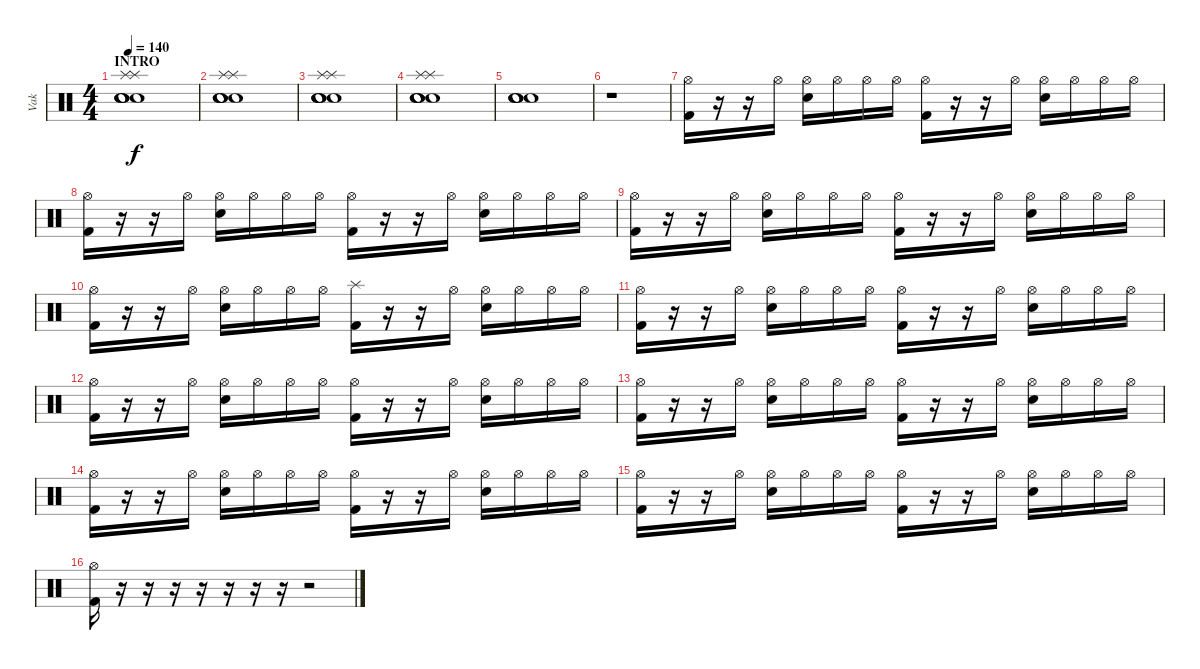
\track ("Vak" "Vak") {instrument percussion}
\staff {score}
\articulation defaults
\ts (4 4)
\section ("" "INTRO")
\tempo 140
\clef neutral
\ks c
("Snare (hit) 2" "Splash (hit)" "Snare (hit) 2" "Splash (hit)" "Snare (hit) 2" "Snare (hit) 2").1{dy f} |
("Snare (hit) 2" "Splash (hit)" "Snare (hit) 2" "Splash (hit)" "Snare (hit) 2" "Snare (hit) 2").1 |
("Snare (hit) 2" "Splash (hit)" "Snare (hit) 2" "Splash (hit)" "Snare (hit) 2" "Snare (hit) 2").1 |
("Snare (hit) 2" "Splash (hit)" "Snare (hit) 2" "Splash (hit)" "Snare (hit) 2" "Snare (hit) 2").1 |
("Snare (hit) 2" "Snare (hit) 2" "Snare (hit) 2" "Snare (hit) 2").1 |
r.1 |
("Hi-Hat (open)" "Kick (hit) 2").16 r.16 r.16 "Hi-Hat (open)".16 ("Hi-Hat (open)" "Snare (hit) 2").16 "Hi-Hat (open)".16 "Hi-Hat (open)".16 "Hi-Hat (open)".16 ("Hi-Hat (open)" "Kick (hit) 2").16 r.16 r.16 "Hi-Hat (open)".16 ("Hi-Hat (open)" "Snare (hit) 2").16 "Hi-Hat (open)".16 "Hi-Hat (open)".16 "Hi-Hat (open)".16 |
("Hi-Hat (open)" "Kick (hit) 2").16 r.16 r.16 "Hi-Hat (open)".16 ("Hi-Hat (open)" "Snare (hit) 2").16 "Hi-Hat (open)".16 "Hi-Hat (open)".16 "Hi-Hat (open)".16 ("Hi-Hat (open)" "Kick (hit) 2").16 r.16 r.16 "Hi-Hat (open)".16 ("Hi-Hat (open)" "Snare (hit) 2").16 "Hi-Hat (open)".16 "Hi-Hat (open)".16 "Hi-Hat (open)".16 |
("Hi-Hat (open)" "Kick (hit) 2").16 r.16 r.16 "Hi-Hat (open)".16 ("Hi-Hat (open)" "Snare (hit) 2").16 "Hi-Hat (open)".16 "Hi-Hat (open)".16 "Hi-Hat (open)".16 ("Hi-Hat (open)" "Kick (hit) 2").16 r.16 r.16 "Hi-Hat (open)".16 ("Hi-Hat (open)" "Snare (hit) 2").16 "Hi-Hat (open)".16 "Hi-Hat (open)".16 "Hi-Hat (open)".16 |
("Hi-Hat (open)" "Kick (hit) 2").16 r.16 r.16 "Hi-Hat (open)".16 ("Hi-Hat (open)" "Snare (hit) 2").16 "Hi-Hat (open)".16 "Hi-Hat (open)".16 "Hi-Hat (open)".16 ("Splash (hit)" "Kick (hit) 2").16 r.16 r.16 "Hi-Hat (open)".16 ("Hi-Hat (open)" "Snare (hit) 2").16 "Hi-Hat (open)".16 "Hi-Hat (open)".16 "Hi-Hat (open)".16 |
("Hi-Hat (open)" "Kick (hit) 2").16 r.16 r.16 "Hi-Hat (open)".16 ("Hi-Hat (open)" "Snare (hit) 2").16 "Hi-Hat (open)".16 "Hi-Hat (open)".16 "Hi-Hat (open)".16 ("Hi-Hat (open)" "Kick (hit) 2").16 r.16 r.16 "Hi-Hat (open)".16 ("Hi-Hat (open)" "Snare (hit) 2").16 "Hi-Hat (open)".16 "Hi-Hat (open)".16 "Hi-Hat (open)".16 |
("Hi-Hat (open)" "Kick (hit) 2").16 r.16 r.16 "Hi-Hat (open)".16 ("Hi-Hat (open)" "Snare (hit) 2").16 "Hi-Hat (open)".16 "Hi-Hat (open)".16 "Hi-Hat (open)".16 ("Hi-Hat (open)" "Kick (hit) 2").16 r.16 r.16 "Hi-Hat (open)".16 ("Hi-Hat (open)" "Snare (hit) 2").16 "Hi-Hat (open)".16 "Hi-Hat (open)".16 "Hi-Hat (open)".16 |
("Hi-Hat (open)" "Kick (hit) 2").16 r.16 r.16 "Hi-Hat (open)".16 ("Hi-Hat (open)" "Snare (hit) 2").16 "Hi-Hat (open)".16 "Hi-Hat (open)".16 "Hi-Hat (open)".16 ("Hi-Hat (open)" "Kick (hit) 2").16 r.16 r.16 "Hi-Hat (open)".16 ("Hi-Hat (open)" "Snare (hit) 2").16 "Hi-Hat (open)".16 "Hi-Hat (open)".16 "Hi-Hat (open)".16 |
("Hi-Hat (open)" "Kick (hit) 2").16 r.16 r.16 "Hi-Hat (open)".16 ("Hi-Hat (open)" "Snare (hit) 2").16 "Hi-Hat (open)".16 "Hi-Hat (open)".16 "Hi-Hat (open)".16 ("Hi-Hat (open)" "Kick (hit) 2").16 r.16 r.16 "Hi-Hat (open)".16 ("Hi-Hat (open)" "Snare (hit) 2").16 "Hi-Hat (open)".16 "Hi-Hat (open)".16 "Hi-Hat (open)".16 |
("Hi-Hat (open)" "Kick (hit) 2").16 r.16 r.16 "Hi-Hat (open)".16 ("Hi-Hat (open)" "Snare (hit) 2").16 "Hi-Hat (open)".16 "Hi-Hat (open)".16 "Hi-Hat (open)".16 ("Hi-Hat (open)" "Kick (hit) 2").16 r.16 r.16 "Hi-Hat (open)".16 ("Hi-Hat (open)" "Snare (hit) 2").16 "Hi-Hat (open)".16 "Hi-Hat (open)".16 "Hi-Hat (open)".16 |
("Hi-Hat (open)" "Kick (hit) 2").16 r.16 r.16 r.16 r.16 r.16 r.16 r.16 r.2
